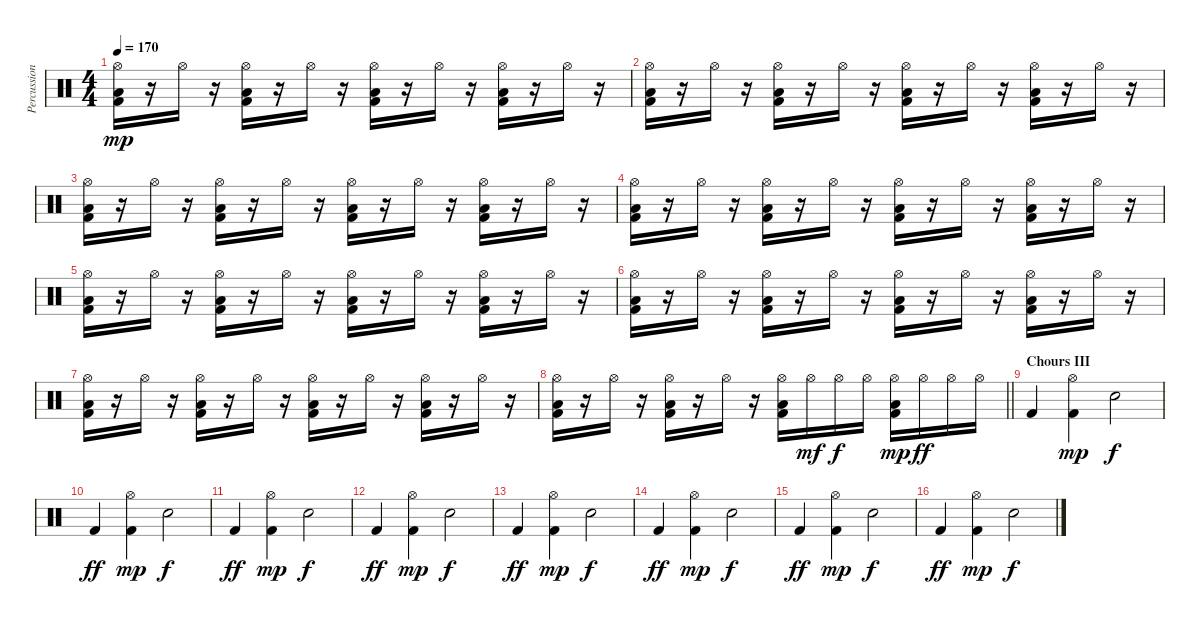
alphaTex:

\track ("Percussion" "Percussion") {instrument percussion}
\staff {score}
\articulation defaults
\ts (4 4)
\tempo 170
\clef neutral
\ks c
("Hi-Hat (open)" "Low Floor Tom (hit)" "Kick (hit) 2").16{dy mp} r.16 "Hi-Hat (open)".16 r.16 ("Hi-Hat (open)" "Low Floor Tom (hit)" "Kick (hit) 2").16 r.16 "Hi-Hat (open)".16 r.16 ("Hi-Hat (open)" "Low Floor Tom (hit)" "Kick (hit) 2").16 r.16 "Hi-Hat (open)".16 r.16 ("Hi-Hat (open)" "Low Floor Tom (hit)" "Kick (hit) 2").16 r.16 "Hi-Hat (open)".16 r.16 |
("Hi-Hat (open)" "Low Floor Tom (hit)" "Kick (hit) 2").16 r.16 "Hi-Hat (open)".16 r.16 ("Hi-Hat (open)" "Low Floor Tom (hit)" "Kick (hit) 2").16 r.16 "Hi-Hat (open)".16 r.16 ("Hi-Hat (open)" "Low Floor Tom (hit)" "Kick (hit) 2").16 r.16 "Hi-Hat (open)".16 r.16 ("Hi-Hat (open)" "Low Floor Tom (hit)" "Kick (hit) 2").16 r.16 "Hi-Hat (open)".16 r.16 |
("Hi-Hat (open)" "Low Floor Tom (hit)" "Kick (hit) 2").16 r.16 "Hi-Hat (open)".16 r.16 ("Hi-Hat (open)" "Low Floor Tom (hit)" "Kick (hit) 2").16 r.16 "Hi-Hat (open)".16 r.16 ("Hi-Hat (open)" "Low Floor Tom (hit)" "Kick (hit) 2").16 r.16 "Hi-Hat (open)".16 r.16 ("Hi-Hat (open)" "Low Floor Tom (hit)" "Kick (hit) 2").16 r.16 "Hi-Hat (open)".16 r.16 |
("Hi-Hat (open)" "Low Floor Tom (hit)" "Kick (hit) 2").16 r.16 "Hi-Hat (open)".16 r.16 ("Hi-Hat (open)" "Low Floor Tom (hit)" "Kick (hit) 2").16 r.16 "Hi-Hat (open)".16 r.16 ("Hi-Hat (open)" "Low Floor Tom (hit)" "Kick (hit) 2").16 r.16 "Hi-Hat (open)".16 r.16 ("Hi-Hat (open)" "Low Floor Tom (hit)" "Kick (hit) 2").16 r.16 "Hi-Hat (open)".16 r.16 |
("Hi-Hat (open)" "Low Floor Tom (hit)" "Kick (hit) 2").16 r.16 "Hi-Hat (open)".16 r.16 ("Hi-Hat (open)" "Low Floor Tom (hit)" "Kick (hit) 2").16 r.16 "Hi-Hat (open)".16 r.16 ("Hi-Hat (open)" "Low Floor Tom (hit)" "Kick (hit) 2").16 r.16 "Hi-Hat (open)".16 r.16 ("Hi-Hat (open)" "Low Floor Tom (hit)" "Kick (hit) 2").16 r.16 "Hi-Hat (open)".16 r.16 |
("Hi-Hat (open)" "Low Floor Tom (hit)" "Kick (hit) 2").16 r.16 "Hi-Hat (open)".16 r.16 ("Hi-Hat (open)" "Low Floor Tom (hit)" "Kick (hit) 2").16 r.16 "Hi-Hat (open)".16 r.16 ("Hi-Hat (open)" "Low Floor Tom (hit)" "Kick (hit) 2").16 r.16 "Hi-Hat (open)".16 r.16 ("Hi-Hat (open)" "Low Floor Tom (hit)" "Kick (hit) 2").16 r.16 "Hi-Hat (open)".16 r.16 |
("Hi-Hat (open)" "Low Floor Tom (hit)" "Kick (hit) 2").16 r.16 "Hi-Hat (open)".16 r.16 ("Hi-Hat (open)" "Low Floor Tom (hit)" "Kick (hit) 2").16 r.16 "Hi-Hat (open)".16 r.16 ("Hi-Hat (open)" "Low Floor Tom (hit)" "Kick (hit) 2").16 r.16 "Hi-Hat (open)".16 r.16 ("Hi-Hat (open)" "Low Floor Tom (hit)" "Kick (hit) 2").16 r.16 "Hi-Hat (open)".16 r.16 |
\barLineRight lightlight
("Hi-Hat (open)" "Low Floor Tom (hit)" "Kick (hit) 2").16 r.16 "Hi-Hat (open)".16 r.16 ("Hi-Hat (open)" "Low Floor Tom (hit)" "Kick (hit) 2").16 r.16 "Hi-Hat (open)".16 r.16 ("Hi-Hat (open)" "Low Floor Tom (hit)" "Kick (hit) 2").16 "Hi-Hat (open)".16{dy mf} "Hi-Hat (open)".16{dy f} "Hi-Hat (open)".16 ("Hi-Hat (open)" "Low Floor Tom (hit)" "Kick (hit) 2").16{dy mp} "Hi-Hat (open)".16{dy ff} "Hi-Hat (open)".16 "Hi-Hat (open)".16 |
\section ("" "Chours III")
"Kick (hit) 2".4 ("Hi-Hat (open)" "Kick (hit) 2").4{dy mp} "Electric Snare (hit)".2{dy f} |
"Kick (hit) 2".4{dy ff} ("Hi-Hat (open)" "Kick (hit) 2").4{dy mp} "Electric Snare (hit)".2{dy f} |
"Kick (hit) 2".4{dy ff} ("Hi-Hat (open)" "Kick (hit) 2").4{dy mp} "Electric Snare (hit)".2{dy f} |
"Kick (hit) 2".4{dy ff} ("Hi-Hat (open)" "Kick (hit) 2").4{dy mp} "Electric Snare (hit)".2{dy f} |
"Kick (hit) 2".4{dy ff} ("Hi-Hat (open)" "Kick (hit) 2").4{dy mp} "Electric Snare (hit)".2{dy f} |
"Kick (hit) 2".4{dy ff} ("Hi-Hat (open)" "Kick (hit) 2").4{dy mp} "Electric Snare (hit)".2{dy f} |
"Kick (hit) 2".4{dy ff} ("Hi-Hat (open)" "Kick (hit) 2").4{dy mp} "Electric Snare (hit)".2{dy f} |
"Kick (hit) 2".4{dy ff} ("Hi-Hat (open)" "Kick (hit) 2").4{dy mp} "Electric Snare (hit)".2{dy f}
